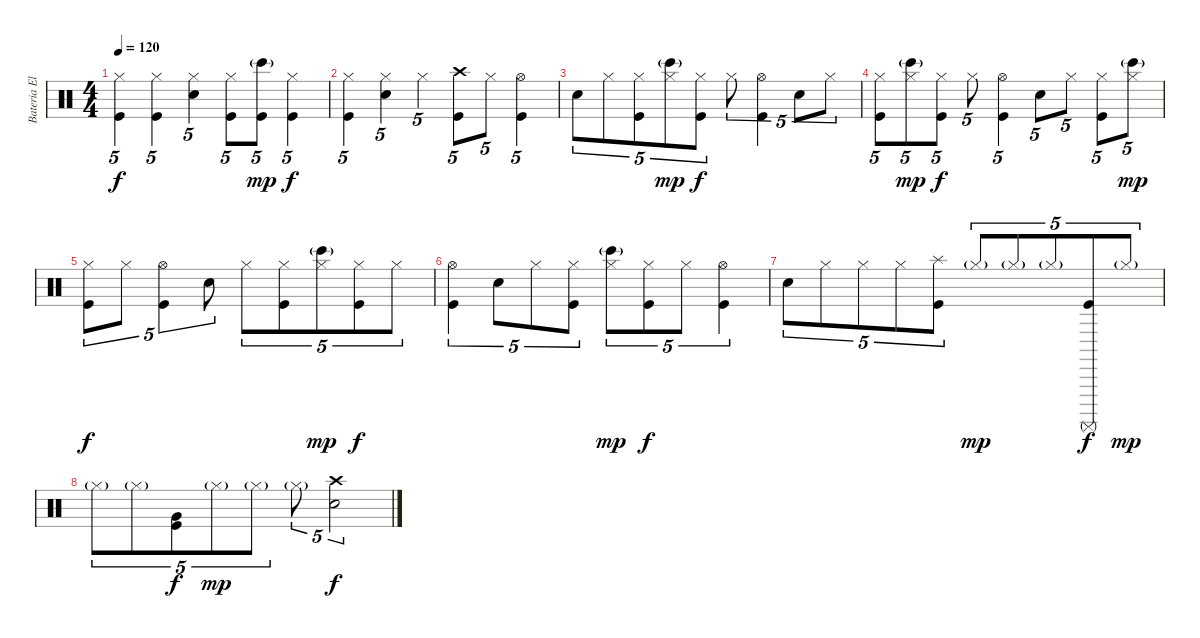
\track ("Bateria Eletrônica" "Bateria El") {instrument percussion}
\staff {score}
\articulation defaults
\ts (4 4)
\tempo 120
\clef neutral
\ks c
("Kick (hit)" "Hi-Hat (closed)").4{tu (5 4) dy f} ("Kick (hit)" "Hi-Hat (closed)").4{tu (5 4)} ("Snare (hit) 2" "Hi-Hat (closed)").4{tu (5 4)} ("Kick (hit)" "Hi-Hat (closed)").8{tu (5 4)} ("Kick (hit)" "Bongo High (hit)"{g}).8{tu (5 4) dy mp} ("Kick (hit)" "Hi-Hat (closed)").4{tu (5 4) dy f} |
("Kick (hit)" "Hi-Hat (closed)").4{tu (5 4)} ("Snare (hit) 2" "Hi-Hat (closed)").4{tu (5 4)} "Hi-Hat (closed)".4{tu (5 4)} ("Kick (hit)" "Crash high (hit)").8{tu (5 4)} "Hi-Hat (closed)".8{tu (5 4)} ("Kick (hit)" "Hi-Hat (open)").4{tu (5 4)} |
"Snare (hit) 2".8{tu (5 4)} "Hi-Hat (closed)".8{tu (5 4)} ("Kick (hit)" "Hi-Hat (closed)").8{tu (5 4)} ("Bongo High (hit)"{g} "Hi-Hat (closed)").8{tu (5 4) dy mp} ("Kick (hit)" "Hi-Hat (closed)").8{tu (5 4) dy f} "Hi-Hat (closed)".8{tu (5 4)} ("Kick (hit)" "Hi-Hat (open)").4{tu (5 4)} "Snare (hit) 2".8{tu (5 4)} "Hi-Hat (closed)".8{tu (5 4)} |
("Kick (hit)" "Hi-Hat (closed)").8{tu (5 4)} ("Bongo High (hit)"{g} "Hi-Hat (closed)").8{tu (5 4) dy mp} ("Kick (hit)" "Hi-Hat (closed)").8{tu (5 4) dy f} "Hi-Hat (closed)".8{tu (5 4)} ("Kick (hit)" "Hi-Hat (open)").4{tu (5 4)} "Snare (hit) 2".8{tu (5 4)} "Hi-Hat (closed)".8{tu (5 4)} ("Kick (hit)" "Hi-Hat (closed)").8{tu (5 4)} ("Bongo High (hit)"{g} "Hi-Hat (closed)").8{tu (5 4) dy mp} |
("Kick (hit)" "Hi-Hat (closed)").8{tu (5 4) dy f} "Hi-Hat (closed)".8{tu (5 4)} ("Kick (hit)" "Hi-Hat (open)").4{tu (5 4)} "Snare (hit) 2".8{tu (5 4)} "Hi-Hat (closed)".8{tu (5 4)} ("Kick (hit)" "Hi-Hat (closed)").8{tu (5 4)} ("Bongo High (hit)"{g} "Hi-Hat (closed)").8{tu (5 4) dy mp} ("Kick (hit)" "Hi-Hat (closed)").8{tu (5 4) dy f} "Hi-Hat (closed)".8{tu (5 4)} |
("Kick (hit)" "Hi-Hat (open)").4{tu (5 4)} "Snare (hit) 2".8{tu (5 4)} "Hi-Hat (closed)".8{tu (5 4)} ("Kick (hit)" "Hi-Hat (closed)").8{tu (5 4)} ("Bongo High (hit)"{g} "Hi-Hat (closed)").8{tu (5 4) dy mp} ("Kick (hit)" "Hi-Hat (closed)").8{tu (5 4) dy f} "Hi-Hat (closed)".8{tu (5 4)} ("Kick (hit)" "Hi-Hat (open)").4{tu (5 4)} |
"Snare (hit) 2".8{tu (5 4)} "Hi-Hat (closed)".8{tu (5 4)} "Hi-Hat (closed)".8{tu (5 4)} "Hi-Hat (closed)".8{tu (5 4)} ("Kick (hit)" "Splash (hit)").8{tu (5 4)} "Hi-Hat (closed)"{g}.8{tu (5 4) dy mp} "Hi-Hat (closed)"{g}.8{tu (5 4)} "Hi-Hat (closed)"{g}.8{tu (5 4)} ("Kick (hit)" "Surdo (mute)").8{tu (5 4) dy f} "Hi-Hat (closed)"{g}.8{tu (5 4) dy mp} |
"Hi-Hat (closed)"{g}.8{tu (5 4)} "Hi-Hat (closed)"{g}.8{tu (5 4)} ("Kick (hit)" "Very Low Tom (hit)").8{tu (5 4) dy f} "Hi-Hat (closed)"{g}.8{tu (5 4) dy mp} "Hi-Hat (closed)"{g}.8{tu (5 4)} "Hi-Hat (closed)"{g}.8{tu (5 4)} ("Snare (hit) 2" "Crash high (hit)").2{tu (5 4) dy f}
